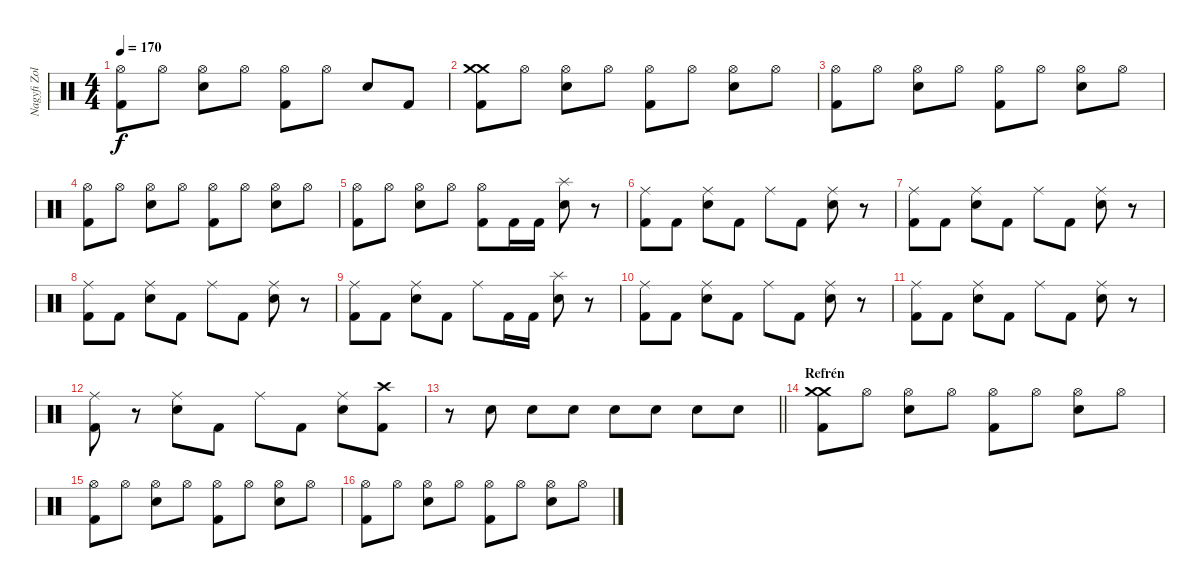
\track ("Nagyfi Zoltán - Dob" "Nagyfi Zol") {instrument percussion}
\staff {score}
\articulation defaults
\ts (4 4)
\tempo 170
\clef neutral
\ks c
("Hi-Hat (open)" "Kick (hit) 2").8{dy f} "Hi-Hat (open)".8 ("Hi-Hat (open)" "Electric Snare (hit)").8 "Hi-Hat (open)".8 ("Hi-Hat (open)" "Kick (hit) 2").8 "Hi-Hat (open)".8 "Electric Snare (hit)".8 "Kick (hit) 2".8 |
("Crash medium (hit)" "Crash medium (hit)" "Kick (hit) 2").8 "Hi-Hat (open)".8 ("Hi-Hat (open)" "Electric Snare (hit)").8 "Hi-Hat (open)".8 ("Hi-Hat (open)" "Kick (hit) 2").8 "Hi-Hat (open)".8 ("Hi-Hat (open)" "Electric Snare (hit)").8 "Hi-Hat (open)".8 |
("Hi-Hat (open)" "Kick (hit) 2").8 "Hi-Hat (open)".8 ("Hi-Hat (open)" "Electric Snare (hit)").8 "Hi-Hat (open)".8 ("Hi-Hat (open)" "Kick (hit) 2").8 "Hi-Hat (open)".8 ("Hi-Hat (open)" "Electric Snare (hit)").8 "Hi-Hat (open)".8 |
("Hi-Hat (open)" "Kick (hit) 2").8 "Hi-Hat (open)".8 ("Hi-Hat (open)" "Electric Snare (hit)").8 "Hi-Hat (open)".8 ("Hi-Hat (open)" "Kick (hit) 2").8 "Hi-Hat (open)".8 ("Hi-Hat (open)" "Electric Snare (hit)").8 "Hi-Hat (open)".8 |
("Hi-Hat (open)" "Kick (hit) 2").8 "Hi-Hat (open)".8 ("Hi-Hat (open)" "Electric Snare (hit)").8 "Hi-Hat (open)".8 ("Hi-Hat (open)" "Kick (hit) 2").8 "Kick (hit) 2".16 "Kick (hit) 2".16 ("Splash (hit)" "Electric Snare (hit)").8 r.8 |
("Ride (middle)" "Kick (hit) 2").8 "Kick (hit) 2".8 ("Ride (middle)" "Electric Snare (hit)").8 "Kick (hit) 2".8 "Ride (middle)".8 "Kick (hit) 2".8 ("Ride (middle)" "Electric Snare (hit)").8 r.8 |
("Ride (middle)" "Kick (hit) 2").8 "Kick (hit) 2".8 ("Ride (middle)" "Electric Snare (hit)").8 "Kick (hit) 2".8 "Ride (middle)".8 "Kick (hit) 2".8 ("Ride (middle)" "Electric Snare (hit)").8 r.8 |
("Ride (middle)" "Kick (hit) 2").8 "Kick (hit) 2".8 ("Ride (middle)" "Electric Snare (hit)").8 "Kick (hit) 2".8 "Ride (middle)".8 "Kick (hit) 2".8 ("Ride (middle)" "Electric Snare (hit)").8 r.8 |
("Ride (middle)" "Kick (hit) 2").8 "Kick (hit) 2".8 ("Ride (middle)" "Electric Snare (hit)").8 "Kick (hit) 2".8 "Ride (middle)".8 "Kick (hit) 2".16 "Kick (hit) 2".16 ("Splash (hit)" "Electric Snare (hit)").8 r.8 |
("Ride (middle)" "Kick (hit) 2").8 "Kick (hit) 2".8 ("Ride (middle)" "Electric Snare (hit)").8 "Kick (hit) 2".8 "Ride (middle)".8 "Kick (hit) 2".8 ("Ride (middle)" "Electric Snare (hit)").8 r.8 |
("Ride (middle)" "Kick (hit) 2").8 "Kick (hit) 2".8 ("Ride (middle)" "Electric Snare (hit)").8 "Kick (hit) 2".8 "Ride (middle)".8 "Kick (hit) 2".8 ("Ride (middle)" "Electric Snare (hit)").8 r.8 |
("Ride (middle)" "Kick (hit) 2").8 r.8 ("Ride (middle)" "Electric Snare (hit)").8 "Kick (hit) 2".8 "Ride (middle)".8 "Kick (hit) 2".8 ("Ride (middle)" "Electric Snare (hit)").8 ("Crash high (hit)" "Kick (hit) 2").8 |
\barLineRight lightlight
r.8 "Electric Snare (hit)".8 "Electric Snare (hit)".8 "Electric Snare (hit)".8 "Electric Snare (hit)".8 "Electric Snare (hit)".8 "Electric Snare (hit)".8 "Electric Snare (hit)".8 |
\section ("" "Refrén")
("Crash medium (hit)" "Crash medium (hit)" "Kick (hit) 2").8 "Hi-Hat (open)".8 ("Hi-Hat (open)" "Electric Snare (hit)").8 "Hi-Hat (open)".8 ("Hi-Hat (open)" "Kick (hit) 2").8 "Hi-Hat (open)".8 ("Hi-Hat (open)" "Electric Snare (hit)").8 "Hi-Hat (open)".8 |
("Hi-Hat (open)" "Kick (hit) 2").8 "Hi-Hat (open)".8 ("Hi-Hat (open)" "Electric Snare (hit)").8 "Hi-Hat (open)".8 ("Hi-Hat (open)" "Kick (hit) 2").8 "Hi-Hat (open)".8 ("Hi-Hat (open)" "Electric Snare (hit)").8 "Hi-Hat (open)".8 |
("Hi-Hat (open)" "Kick (hit) 2").8 "Hi-Hat (open)".8 ("Hi-Hat (open)" "Electric Snare (hit)").8 "Hi-Hat (open)".8 ("Hi-Hat (open)" "Kick (hit) 2").8 "Hi-Hat (open)".8 ("Hi-Hat (open)" "Electric Snare (hit)").8 "Hi-Hat (open)".8
